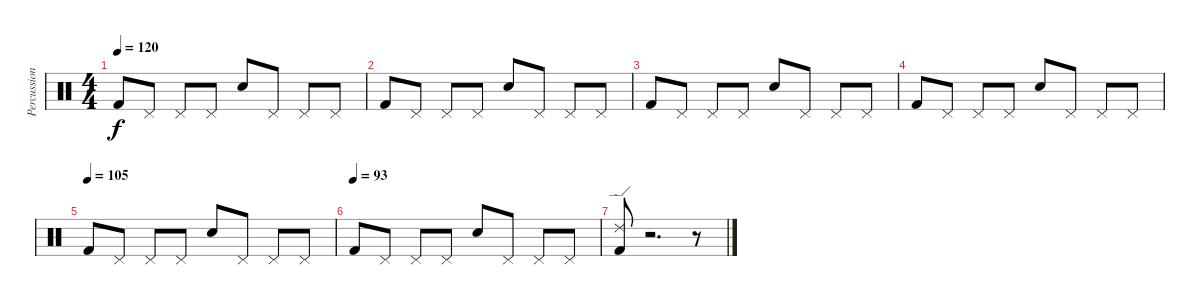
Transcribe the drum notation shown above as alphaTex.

\track ("Percussion" "Percussion") {instrument percussion}
\staff {score}
\articulation defaults
\ts (4 4)
\tempo 120
\clef neutral
\ks c "Kick (hit) 2".8{dy f} "Pedal Hi-Hat (hit)".8 "Pedal Hi-Hat (hit)".8 "Pedal Hi-Hat (hit)".8 "Electric Snare (hit)".8 "Pedal Hi-Hat (hit)".8 "Pedal Hi-Hat (hit)".8 "Pedal Hi-Hat (hit)".8
|
"Kick (hit) 2".8 "Pedal Hi-Hat (hit)".8 "Pedal Hi-Hat (hit)".8 "Pedal Hi-Hat (hit)".8 "Electric Snare (hit)".8 "Pedal Hi-Hat (hit)".8 "Pedal Hi-Hat (hit)".8 "Pedal Hi-Hat (hit)".8 |
"Kick (hit) 2".8 "Pedal Hi-Hat (hit)".8 "Pedal Hi-Hat (hit)".8 "Pedal Hi-Hat (hit)".8 "Electric Snare (hit)".8 "Pedal Hi-Hat (hit)".8 "Pedal Hi-Hat (hit)".8 "Pedal Hi-Hat (hit)".8 |
"Kick (hit) 2".8 "Pedal Hi-Hat (hit)".8 "Pedal Hi-Hat (hit)".8 "Pedal Hi-Hat (hit)".8 "Electric Snare (hit)".8 "Pedal Hi-Hat (hit)".8 "Pedal Hi-Hat (hit)".8 "Pedal Hi-Hat (hit)".8 |
\tempo (105)
"Kick (hit) 2".8 "Pedal Hi-Hat (hit)".8 "Pedal Hi-Hat (hit)".8 "Pedal Hi-Hat (hit)".8 "Electric Snare (hit)".8 "Pedal Hi-Hat (hit)".8 "Pedal Hi-Hat (hit)".8 "Pedal Hi-Hat (hit)".8 |
\tempo (93)
"Kick (hit) 2".8 "Pedal Hi-Hat (hit)".8 "Pedal Hi-Hat (hit)".8 "Pedal Hi-Hat (hit)".8 "Electric Snare (hit)".8 "Pedal Hi-Hat (hit)".8 "Pedal Hi-Hat (hit)".8 "Pedal Hi-Hat (hit)".8 |
("Ride (edge) 2" "Kick (hit) 2").8 r.2{d} r.8
